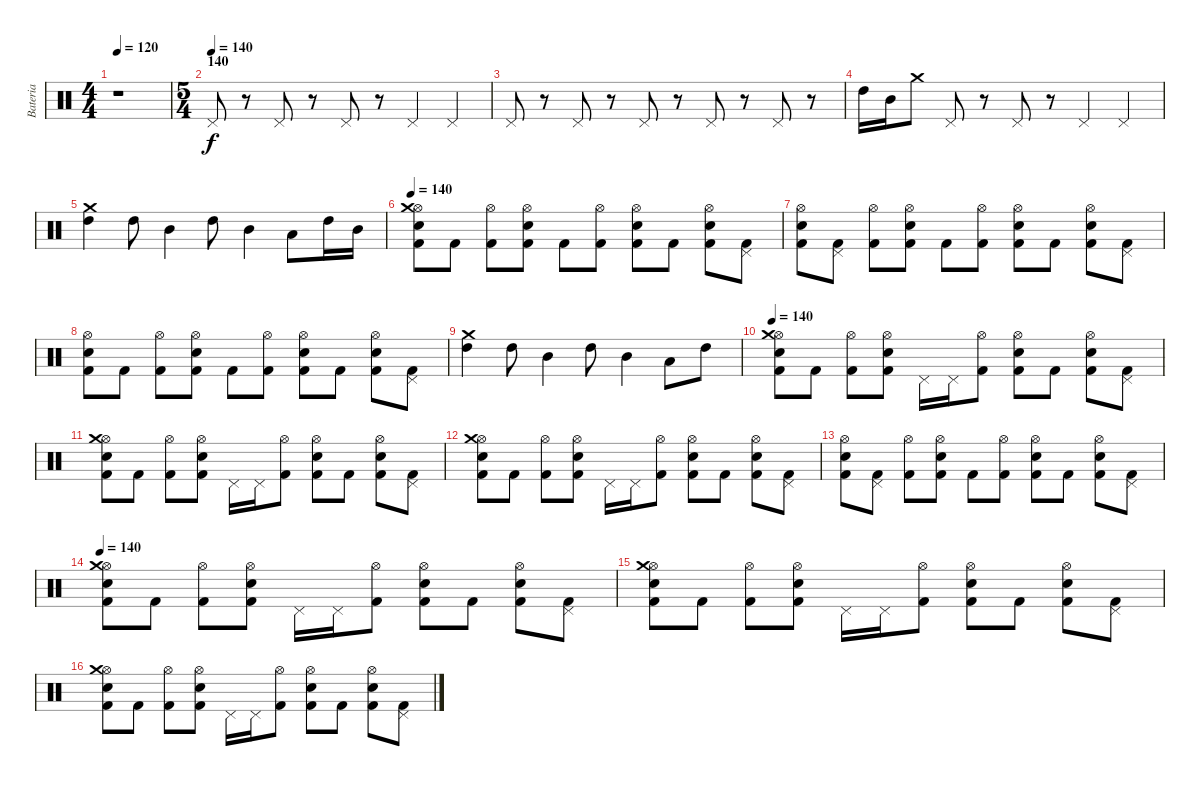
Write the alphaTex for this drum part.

\track ("Bateria" "Bateria") {instrument percussion}
\staff {score}
\articulation defaults
\ts (4 4)
\tempo 120
\clef neutral
\ks c
r.1{dy f} |
\ts (5 4)
\section ("" "140")
\tempo (140)
"Pedal Hi-Hat (hit)".8 r.8 "Pedal Hi-Hat (hit)".8 r.8 "Pedal Hi-Hat (hit)".8 r.8 "Pedal Hi-Hat (hit)".4 "Pedal Hi-Hat (hit)".4 |
"Pedal Hi-Hat (hit)".8 r.8 "Pedal Hi-Hat (hit)".8 r.8 "Pedal Hi-Hat (hit)".8 r.8 "Pedal Hi-Hat (hit)".8 r.8 "Pedal Hi-Hat (hit)".8 r.8 |
"High Tom (hit)".16 "Mid Tom (hit)".16 "Crash medium (hit)".8 "Pedal Hi-Hat (hit)".8 r.8 "Pedal Hi-Hat (hit)".8 r.8 "Pedal Hi-Hat (hit)".4 "Pedal Hi-Hat (hit)".4 |
("Crash medium (hit)" "High Tom (hit)").4 "High Tom (hit)".8 "Mid Tom (hit)".4 "High Tom (hit)".8 "Mid Tom (hit)".4 "Low Tom (hit)".8 "High Tom (hit)".16 "Mid Tom (hit)".16 |
\tempo 140
("Hi-Hat (open)" "Snare (hit) 2" "Crash medium (hit)" "Kick (hit) 2").8 "Kick (hit) 2".8 ("Hi-Hat (open)" "Kick (hit) 2").8 ("Hi-Hat (open)" "Snare (hit) 2" "Kick (hit) 2").8 "Kick (hit) 2".8 ("Hi-Hat (open)" "Kick (hit) 2").8 ("Hi-Hat (open)" "Snare (hit) 2" "Kick (hit) 2").8 "Kick (hit) 2".8 ("Hi-Hat (open)" "Snare (hit) 2" "Kick (hit) 2").8 ("Pedal Hi-Hat (hit)" "Kick (hit) 2").8 |
("Hi-Hat (open)" "Snare (hit) 2" "Kick (hit) 2").8 ("Pedal Hi-Hat (hit)" "Kick (hit) 2").8 ("Hi-Hat (open)" "Kick (hit) 2").8 ("Hi-Hat (open)" "Snare (hit) 2" "Kick (hit) 2").8 "Kick (hit) 2".8 ("Hi-Hat (open)" "Kick (hit) 2").8 ("Hi-Hat (open)" "Snare (hit) 2" "Kick (hit) 2").8 "Kick (hit) 2".8 ("Hi-Hat (open)" "Snare (hit) 2" "Kick (hit) 2").8 ("Pedal Hi-Hat (hit)" "Kick (hit) 2").8 |
("Hi-Hat (open)" "Snare (hit) 2" "Kick (hit) 2").8 "Kick (hit) 2".8 ("Hi-Hat (open)" "Kick (hit) 2").8 ("Hi-Hat (open)" "Snare (hit) 2" "Kick (hit) 2").8 "Kick (hit) 2".8 ("Hi-Hat (open)" "Kick (hit) 2").8 ("Hi-Hat (open)" "Snare (hit) 2" "Kick (hit) 2").8 "Kick (hit) 2".8 ("Hi-Hat (open)" "Snare (hit) 2" "Kick (hit) 2").8 ("Pedal Hi-Hat (hit)" "Kick (hit) 2").8 |
("Crash medium (hit)" "High Tom (hit)").4 "High Tom (hit)".8 "Mid Tom (hit)".4 "High Tom (hit)".8 "Mid Tom (hit)".4 "Low Tom (hit)".8 "High Tom (hit)".8 |
\tempo 140
("Hi-Hat (open)" "Snare (hit) 2" "Crash medium (hit)" "Kick (hit) 2").8 "Kick (hit) 2".8 ("Hi-Hat (open)" "Kick (hit) 2").8 ("Hi-Hat (open)" "Snare (hit) 2" "Kick (hit) 2").8 "Pedal Hi-Hat (hit)".16 "Pedal Hi-Hat (hit)".16 ("Hi-Hat (open)" "Kick (hit) 2").8 ("Hi-Hat (open)" "Snare (hit) 2" "Kick (hit) 2").8 "Kick (hit) 2".8 ("Hi-Hat (open)" "Snare (hit) 2" "Kick (hit) 2").8 ("Pedal Hi-Hat (hit)" "Kick (hit) 2").8 |
("Hi-Hat (open)" "Snare (hit) 2" "Crash medium (hit)" "Kick (hit) 2").8 "Kick (hit) 2".8 ("Hi-Hat (open)" "Kick (hit) 2").8 ("Hi-Hat (open)" "Snare (hit) 2" "Kick (hit) 2").8 "Pedal Hi-Hat (hit)".16 "Pedal Hi-Hat (hit)".16 ("Hi-Hat (open)" "Kick (hit) 2").8 ("Hi-Hat (open)" "Snare (hit) 2" "Kick (hit) 2").8 "Kick (hit) 2".8 ("Hi-Hat (open)" "Snare (hit) 2" "Kick (hit) 2").8 ("Pedal Hi-Hat (hit)" "Kick (hit) 2").8 |
("Hi-Hat (open)" "Snare (hit) 2" "Crash medium (hit)" "Kick (hit) 2").8 "Kick (hit) 2".8 ("Hi-Hat (open)" "Kick (hit) 2").8 ("Hi-Hat (open)" "Snare (hit) 2" "Kick (hit) 2").8 "Pedal Hi-Hat (hit)".16 "Pedal Hi-Hat (hit)".16 ("Hi-Hat (open)" "Kick (hit) 2").8 ("Hi-Hat (open)" "Snare (hit) 2" "Kick (hit) 2").8 "Kick (hit) 2".8 ("Hi-Hat (open)" "Snare (hit) 2" "Kick (hit) 2").8 ("Pedal Hi-Hat (hit)" "Kick (hit) 2").8 |
("Hi-Hat (open)" "Snare (hit) 2" "Kick (hit) 2").8 ("Pedal Hi-Hat (hit)" "Kick (hit) 2").8 ("Hi-Hat (open)" "Kick (hit) 2").8 ("Hi-Hat (open)" "Snare (hit) 2" "Kick (hit) 2").8 "Kick (hit) 2".8 ("Hi-Hat (open)" "Kick (hit) 2").8 ("Hi-Hat (open)" "Snare (hit) 2" "Kick (hit) 2").8 "Kick (hit) 2".8 ("Hi-Hat (open)" "Snare (hit) 2" "Kick (hit) 2").8 ("Pedal Hi-Hat (hit)" "Kick (hit) 2").8 |
\tempo 140
("Hi-Hat (open)" "Snare (hit) 2" "Crash medium (hit)" "Kick (hit) 2").8 "Kick (hit) 2".8 ("Hi-Hat (open)" "Kick (hit) 2").8 ("Hi-Hat (open)" "Snare (hit) 2" "Kick (hit) 2").8 "Pedal Hi-Hat (hit)".16 "Pedal Hi-Hat (hit)".16 ("Hi-Hat (open)" "Kick (hit) 2").8 ("Hi-Hat (open)" "Snare (hit) 2" "Kick (hit) 2").8 "Kick (hit) 2".8 ("Hi-Hat (open)" "Snare (hit) 2" "Kick (hit) 2").8 ("Pedal Hi-Hat (hit)" "Kick (hit) 2").8 |
("Hi-Hat (open)" "Snare (hit) 2" "Crash medium (hit)" "Kick (hit) 2").8 "Kick (hit) 2".8 ("Hi-Hat (open)" "Kick (hit) 2").8 ("Hi-Hat (open)" "Snare (hit) 2" "Kick (hit) 2").8 "Pedal Hi-Hat (hit)".16 "Pedal Hi-Hat (hit)".16 ("Hi-Hat (open)" "Kick (hit) 2").8 ("Hi-Hat (open)" "Snare (hit) 2" "Kick (hit) 2").8 "Kick (hit) 2".8 ("Hi-Hat (open)" "Snare (hit) 2" "Kick (hit) 2").8 ("Pedal Hi-Hat (hit)" "Kick (hit) 2").8 |
("Hi-Hat (open)" "Snare (hit) 2" "Crash medium (hit)" "Kick (hit) 2").8 "Kick (hit) 2".8 ("Hi-Hat (open)" "Kick (hit) 2").8 ("Hi-Hat (open)" "Snare (hit) 2" "Kick (hit) 2").8 "Pedal Hi-Hat (hit)".16 "Pedal Hi-Hat (hit)".16 ("Hi-Hat (open)" "Kick (hit) 2").8 ("Hi-Hat (open)" "Snare (hit) 2" "Kick (hit) 2").8 "Kick (hit) 2".8 ("Hi-Hat (open)" "Snare (hit) 2" "Kick (hit) 2").8 ("Pedal Hi-Hat (hit)" "Kick (hit) 2").8
